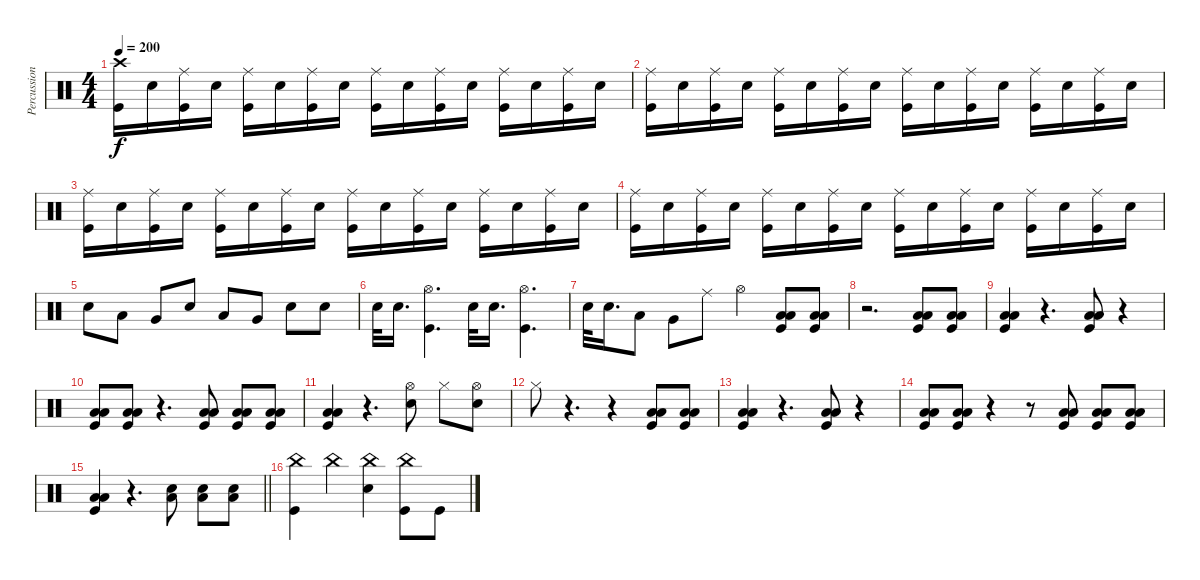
\track ("Percussion" "Percussion") {instrument percussion}
\staff {score}
\articulation defaults
\ts (4 4)
\tempo 200
\clef neutral
\ks c
("Crash high (hit)" "Kick (hit)").16{dy f} "Electric Snare (hit)".16 ("Ride (middle)" "Kick (hit)").16 "Electric Snare (hit)".16 ("Ride (middle)" "Kick (hit)").16 "Electric Snare (hit)".16 ("Ride (middle)" "Kick (hit)").16 "Electric Snare (hit)".16 ("Ride (middle)" "Kick (hit)").16 "Electric Snare (hit)".16 ("Ride (middle)" "Kick (hit)").16 "Electric Snare (hit)".16 ("Ride (middle)" "Kick (hit)").16 "Electric Snare (hit)".16 ("Ride (middle)" "Kick (hit)").16 "Electric Snare (hit)".16 |
("Ride (middle)" "Kick (hit)").16 "Electric Snare (hit)".16 ("Ride (middle)" "Kick (hit)").16 "Electric Snare (hit)".16 ("Ride (middle)" "Kick (hit)").16 "Electric Snare (hit)".16 ("Ride (middle)" "Kick (hit)").16 "Electric Snare (hit)".16 ("Ride (middle)" "Kick (hit)").16 "Electric Snare (hit)".16 ("Ride (middle)" "Kick (hit)").16 "Electric Snare (hit)".16 ("Ride (middle)" "Kick (hit)").16 "Electric Snare (hit)".16 ("Ride (middle)" "Kick (hit)").16 "Electric Snare (hit)".16 |
("Ride (middle)" "Kick (hit)").16 "Electric Snare (hit)".16 ("Ride (middle)" "Kick (hit)").16 "Electric Snare (hit)".16 ("Ride (middle)" "Kick (hit)").16 "Electric Snare (hit)".16 ("Ride (middle)" "Kick (hit)").16 "Electric Snare (hit)".16 ("Ride (middle)" "Kick (hit)").16 "Electric Snare (hit)".16 ("Ride (middle)" "Kick (hit)").16 "Electric Snare (hit)".16 ("Ride (middle)" "Kick (hit)").16 "Electric Snare (hit)".16 ("Ride (middle)" "Kick (hit)").16 "Electric Snare (hit)".16 |
("Ride (middle)" "Kick (hit)").16 "Electric Snare (hit)".16 ("Ride (middle)" "Kick (hit)").16 "Electric Snare (hit)".16 ("Ride (middle)" "Kick (hit)").16 "Electric Snare (hit)".16 ("Ride (middle)" "Kick (hit)").16 "Electric Snare (hit)".16 ("Ride (middle)" "Kick (hit)").16 "Electric Snare (hit)".16 ("Ride (middle)" "Kick (hit)").16 "Electric Snare (hit)".16 ("Ride (middle)" "Kick (hit)").16 "Electric Snare (hit)".16 ("Ride (middle)" "Kick (hit)").16 "Electric Snare (hit)".16 |
"Electric Snare (hit)".8 "Low Tom (hit)".8 "Very Low Tom (hit)".8 "Electric Snare (hit)".8 "Low Tom (hit)".8 "Very Low Tom (hit)".8 "Electric Snare (hit)".8 "Electric Snare (hit)".8 |
"Electric Snare (hit)".32 "Electric Snare (hit)".16{d} ("Hi-Hat (open)" "Kick (hit)").4{d} "Electric Snare (hit)".32 "Electric Snare (hit)".16{d} ("Hi-Hat (open)" "Kick (hit)").4{d} |
"Electric Snare (hit)".32 "Electric Snare (hit)".16{d} "Low Tom (hit)".8 "Very Low Tom (hit)".8 "Ride (middle)".8 "Hi-Hat (open)".4 ("Low Floor Tom (hit)" "Low Floor Tom (hit)" "Kick (hit)").8 ("Low Floor Tom (hit)" "Low Floor Tom (hit)" "Kick (hit)").8 |
r.2{d} ("Low Floor Tom (hit)" "Low Floor Tom (hit)" "Kick (hit)").8 ("Low Floor Tom (hit)" "Low Floor Tom (hit)" "Kick (hit)").8 |
("Low Floor Tom (hit)" "Low Floor Tom (hit)" "Kick (hit)").4 r.4{d} ("Low Floor Tom (hit)" "Low Floor Tom (hit)" "Kick (hit)").8 r.4 |
("Low Floor Tom (hit)" "Low Floor Tom (hit)" "Kick (hit)").8 ("Low Floor Tom (hit)" "Low Floor Tom (hit)" "Kick (hit)").8 r.4{d} ("Low Floor Tom (hit)" "Low Floor Tom (hit)" "Kick (hit)").8 ("Low Floor Tom (hit)" "Low Floor Tom (hit)" "Kick (hit)").8 ("Low Floor Tom (hit)" "Low Floor Tom (hit)" "Kick (hit)").8 |
("Low Floor Tom (hit)" "Low Floor Tom (hit)" "Kick (hit)").4 r.4{d} ("Hi-Hat (open)" "Electric Snare (hit)").8 "Hi-Hat (closed)".8 ("Hi-Hat (open)" "Electric Snare (hit)").8 |
"Hi-Hat (closed)".8 r.4{d} r.4 ("Low Floor Tom (hit)" "Low Floor Tom (hit)" "Kick (hit)").8 ("Low Floor Tom (hit)" "Low Floor Tom (hit)" "Kick (hit)").8 |
("Low Floor Tom (hit)" "Low Floor Tom (hit)" "Kick (hit)").4 r.4{d} ("Low Floor Tom (hit)" "Low Floor Tom (hit)" "Kick (hit)").8 r.4 |
("Low Floor Tom (hit)" "Low Floor Tom (hit)" "Kick (hit)").8 ("Low Floor Tom (hit)" "Low Floor Tom (hit)" "Kick (hit)").8 r.4 r.8 ("Low Floor Tom (hit)" "Low Floor Tom (hit)" "Kick (hit)").8 ("Low Floor Tom (hit)" "Low Floor Tom (hit)" "Kick (hit)").8 ("Low Floor Tom (hit)" "Low Floor Tom (hit)" "Kick (hit)").8 |
\barLineRight lightlight
("Low Floor Tom (hit)" "Low Floor Tom (hit)" "Kick (hit)").4 r.4{d} ("Electric Snare (hit)" "Low Floor Tom (hit)").8 ("Electric Snare (hit)" "Low Floor Tom (hit)").8 ("Electric Snare (hit)" "Low Floor Tom (hit)").8 |
("China (hit)" "Kick (hit)").4 "China (hit)".4 ("China (hit)" "Electric Snare (hit)").4 ("China (hit)" "Kick (hit)").8 "Kick (hit)".8
